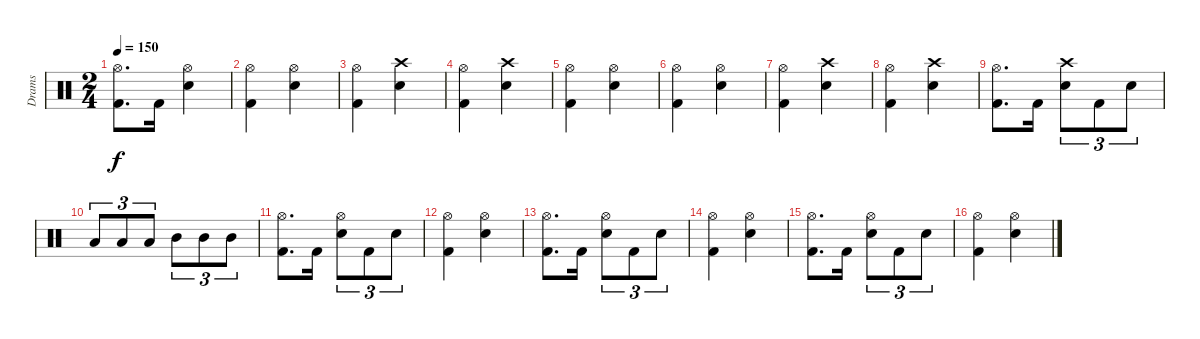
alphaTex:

\track ("Drams" "Drams") {instrument percussion}
\staff {score}
\articulation defaults
\ts (2 4)
\tempo 150
\clef neutral
\ks aminor
("Hi-Hat (open)" "Kick (hit) 2").8{d dy f} "Kick (hit) 2".16 ("Electric Snare (hit)" "Hi-Hat (open)").4 |
("Hi-Hat (open)" "Kick (hit) 2").4 ("Hi-Hat (open)" "Electric Snare (hit)").4 |
("Hi-Hat (open)" "Kick (hit) 2").4 ("Crash high (hit)" "Electric Snare (hit)").4 |
("Hi-Hat (open)" "Kick (hit) 2").4 ("Crash high (hit)" "Electric Snare (hit)").4 |
("Hi-Hat (open)" "Kick (hit) 2").4 ("Hi-Hat (open)" "Electric Snare (hit)").4 |
("Hi-Hat (open)" "Kick (hit) 2").4 ("Hi-Hat (open)" "Electric Snare (hit)").4 |
("Hi-Hat (open)" "Kick (hit) 2").4 ("Crash high (hit)" "Electric Snare (hit)").4 |
("Hi-Hat (open)" "Kick (hit) 2").4 ("Crash high (hit)" "Electric Snare (hit)").4 |
("Kick (hit) 2" "Hi-Hat (open)").8{d} "Kick (hit) 2".16 ("Electric Snare (hit)" "Crash high (hit)").8{tu (3 2)} "Kick (hit) 2".8{tu (3 2)} "Electric Snare (hit)".8{tu (3 2)} |
"Low Tom (hit)".8{tu (3 2)} "Low Tom (hit)".8{tu (3 2)} "Low Tom (hit)".8{tu (3 2)} "Mid Tom (hit)".8{tu (3 2)} "Mid Tom (hit)".8{tu (3 2)} "Mid Tom (hit)".8{tu (3 2)} |
("Kick (hit) 2" "Hi-Hat (open)").8{d} "Kick (hit) 2".16 ("Electric Snare (hit)" "Hi-Hat (open)").8{tu (3 2)} "Kick (hit) 2".8{tu (3 2)} "Electric Snare (hit)".8{tu (3 2)} |
("Hi-Hat (open)" "Kick (hit) 2").4 ("Hi-Hat (open)" "Electric Snare (hit)").4 |
("Kick (hit) 2" "Hi-Hat (open)").8{d} "Kick (hit) 2".16 ("Electric Snare (hit)" "Hi-Hat (open)").8{tu (3 2)} "Kick (hit) 2".8{tu (3 2)} "Electric Snare (hit)".8{tu (3 2)} |
("Hi-Hat (open)" "Kick (hit) 2").4 ("Hi-Hat (open)" "Electric Snare (hit)").4 |
("Kick (hit) 2" "Hi-Hat (open)").8{d} "Kick (hit) 2".16 ("Electric Snare (hit)" "Hi-Hat (open)").8{tu (3 2)} "Kick (hit) 2".8{tu (3 2)} "Electric Snare (hit)".8{tu (3 2)} |
("Hi-Hat (open)" "Kick (hit) 2").4 ("Hi-Hat (open)" "Electric Snare (hit)").4
